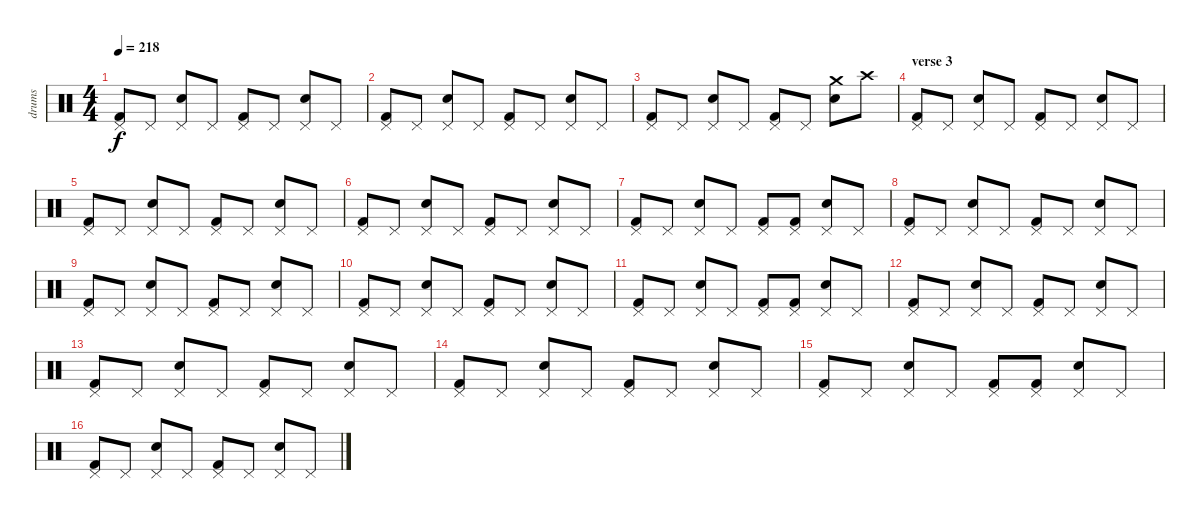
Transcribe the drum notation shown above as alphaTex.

\track ("drums" "drums") {instrument percussion}
\staff {score}
\articulation defaults
\ts (4 4)
\tempo 218
\clef neutral
\ks c
("Kick (hit) 2" "Pedal Hi-Hat (hit)").8{dy f} "Pedal Hi-Hat (hit)".8 ("Snare (hit) 2" "Pedal Hi-Hat (hit)").8 "Pedal Hi-Hat (hit)".8 ("Kick (hit) 2" "Pedal Hi-Hat (hit)").8 "Pedal Hi-Hat (hit)".8 ("Snare (hit) 2" "Pedal Hi-Hat (hit)").8 "Pedal Hi-Hat (hit)".8 |
("Kick (hit) 2" "Pedal Hi-Hat (hit)").8 "Pedal Hi-Hat (hit)".8 ("Snare (hit) 2" "Pedal Hi-Hat (hit)").8 "Pedal Hi-Hat (hit)".8 ("Kick (hit) 2" "Pedal Hi-Hat (hit)").8 "Pedal Hi-Hat (hit)".8 ("Snare (hit) 2" "Pedal Hi-Hat (hit)").8 "Pedal Hi-Hat (hit)".8 |
("Kick (hit) 2" "Pedal Hi-Hat (hit)").8 "Pedal Hi-Hat (hit)".8 ("Snare (hit) 2" "Pedal Hi-Hat (hit)").8 "Pedal Hi-Hat (hit)".8 ("Kick (hit) 2" "Pedal Hi-Hat (hit)").8 "Pedal Hi-Hat (hit)".8 ("Snare (hit) 2" "Crash medium (hit)").8 "Crash high (hit)".8 |
\section ("" "verse 3")
("Kick (hit) 2" "Pedal Hi-Hat (hit)").8 "Pedal Hi-Hat (hit)".8 ("Snare (hit) 2" "Pedal Hi-Hat (hit)").8 "Pedal Hi-Hat (hit)".8 ("Kick (hit) 2" "Pedal Hi-Hat (hit)").8 "Pedal Hi-Hat (hit)".8 ("Snare (hit) 2" "Pedal Hi-Hat (hit)").8 "Pedal Hi-Hat (hit)".8 |
("Kick (hit) 2" "Pedal Hi-Hat (hit)").8 "Pedal Hi-Hat (hit)".8 ("Snare (hit) 2" "Pedal Hi-Hat (hit)").8 "Pedal Hi-Hat (hit)".8 ("Kick (hit) 2" "Pedal Hi-Hat (hit)").8 "Pedal Hi-Hat (hit)".8 ("Snare (hit) 2" "Pedal Hi-Hat (hit)").8 "Pedal Hi-Hat (hit)".8 |
("Kick (hit) 2" "Pedal Hi-Hat (hit)").8 "Pedal Hi-Hat (hit)".8 ("Snare (hit) 2" "Pedal Hi-Hat (hit)").8 "Pedal Hi-Hat (hit)".8 ("Kick (hit) 2" "Pedal Hi-Hat (hit)").8 "Pedal Hi-Hat (hit)".8 ("Snare (hit) 2" "Pedal Hi-Hat (hit)").8 "Pedal Hi-Hat (hit)".8 |
("Kick (hit) 2" "Pedal Hi-Hat (hit)").8 "Pedal Hi-Hat (hit)".8 ("Snare (hit) 2" "Pedal Hi-Hat (hit)").8 "Pedal Hi-Hat (hit)".8 ("Kick (hit) 2" "Pedal Hi-Hat (hit)").8 ("Kick (hit) 2" "Pedal Hi-Hat (hit)").8 ("Snare (hit) 2" "Pedal Hi-Hat (hit)").8 "Pedal Hi-Hat (hit)".8 |
("Kick (hit) 2" "Pedal Hi-Hat (hit)").8 "Pedal Hi-Hat (hit)".8 ("Snare (hit) 2" "Pedal Hi-Hat (hit)").8 "Pedal Hi-Hat (hit)".8 ("Kick (hit) 2" "Pedal Hi-Hat (hit)").8 "Pedal Hi-Hat (hit)".8 ("Snare (hit) 2" "Pedal Hi-Hat (hit)").8 "Pedal Hi-Hat (hit)".8 |
("Kick (hit) 2" "Pedal Hi-Hat (hit)").8 "Pedal Hi-Hat (hit)".8 ("Snare (hit) 2" "Pedal Hi-Hat (hit)").8 "Pedal Hi-Hat (hit)".8 ("Kick (hit) 2" "Pedal Hi-Hat (hit)").8 "Pedal Hi-Hat (hit)".8 ("Snare (hit) 2" "Pedal Hi-Hat (hit)").8 "Pedal Hi-Hat (hit)".8 |
("Kick (hit) 2" "Pedal Hi-Hat (hit)").8 "Pedal Hi-Hat (hit)".8 ("Snare (hit) 2" "Pedal Hi-Hat (hit)").8 "Pedal Hi-Hat (hit)".8 ("Kick (hit) 2" "Pedal Hi-Hat (hit)").8 "Pedal Hi-Hat (hit)".8 ("Snare (hit) 2" "Pedal Hi-Hat (hit)").8 "Pedal Hi-Hat (hit)".8 |
("Kick (hit) 2" "Pedal Hi-Hat (hit)").8 "Pedal Hi-Hat (hit)".8 ("Snare (hit) 2" "Pedal Hi-Hat (hit)").8 "Pedal Hi-Hat (hit)".8 ("Kick (hit) 2" "Pedal Hi-Hat (hit)").8 ("Kick (hit) 2" "Pedal Hi-Hat (hit)").8 ("Snare (hit) 2" "Pedal Hi-Hat (hit)").8 "Pedal Hi-Hat (hit)".8 |
("Kick (hit) 2" "Pedal Hi-Hat (hit)").8 "Pedal Hi-Hat (hit)".8 ("Snare (hit) 2" "Pedal Hi-Hat (hit)").8 "Pedal Hi-Hat (hit)".8 ("Kick (hit) 2" "Pedal Hi-Hat (hit)").8 "Pedal Hi-Hat (hit)".8 ("Snare (hit) 2" "Pedal Hi-Hat (hit)").8 "Pedal Hi-Hat (hit)".8 |
("Kick (hit) 2" "Pedal Hi-Hat (hit)").8 "Pedal Hi-Hat (hit)".8 ("Snare (hit) 2" "Pedal Hi-Hat (hit)").8 "Pedal Hi-Hat (hit)".8 ("Kick (hit) 2" "Pedal Hi-Hat (hit)").8 "Pedal Hi-Hat (hit)".8 ("Snare (hit) 2" "Pedal Hi-Hat (hit)").8 "Pedal Hi-Hat (hit)".8 |
("Kick (hit) 2" "Pedal Hi-Hat (hit)").8 "Pedal Hi-Hat (hit)".8 ("Snare (hit) 2" "Pedal Hi-Hat (hit)").8 "Pedal Hi-Hat (hit)".8 ("Kick (hit) 2" "Pedal Hi-Hat (hit)").8 "Pedal Hi-Hat (hit)".8 ("Snare (hit) 2" "Pedal Hi-Hat (hit)").8 "Pedal Hi-Hat (hit)".8 |
("Kick (hit) 2" "Pedal Hi-Hat (hit)").8 "Pedal Hi-Hat (hit)".8 ("Snare (hit) 2" "Pedal Hi-Hat (hit)").8 "Pedal Hi-Hat (hit)".8 ("Kick (hit) 2" "Pedal Hi-Hat (hit)").8 ("Kick (hit) 2" "Pedal Hi-Hat (hit)").8 ("Snare (hit) 2" "Pedal Hi-Hat (hit)").8 "Pedal Hi-Hat (hit)".8 |
("Kick (hit) 2" "Pedal Hi-Hat (hit)").8 "Pedal Hi-Hat (hit)".8 ("Snare (hit) 2" "Pedal Hi-Hat (hit)").8 "Pedal Hi-Hat (hit)".8 ("Kick (hit) 2" "Pedal Hi-Hat (hit)").8 "Pedal Hi-Hat (hit)".8 ("Snare (hit) 2" "Pedal Hi-Hat (hit)").8 "Pedal Hi-Hat (hit)".8
